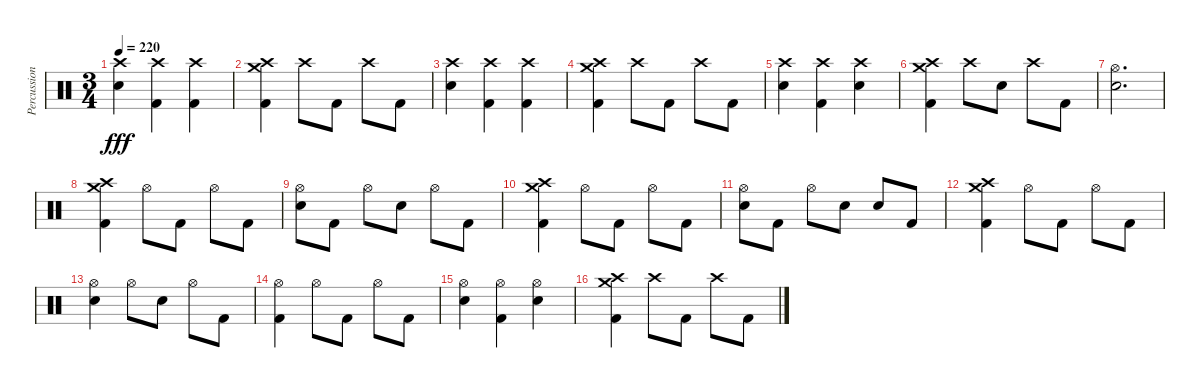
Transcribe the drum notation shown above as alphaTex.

\track ("Percussions" "Percussion") {instrument percussion}
\staff {score}
\articulation defaults
\ts (3 4)
\tempo 220
\clef neutral
\ks c
("Crash high (hit)" "Electric Snare (hit)").4{dy fff} ("Crash high (hit)" "Kick (hit) 2").4 ("Crash high (hit)" "Kick (hit) 2").4 |
("Crash high (hit)" "Crash medium (hit)" "Kick (hit) 2").4 "Crash high (hit)".8 "Kick (hit) 2".8 "Crash high (hit)".8 "Kick (hit) 2".8 |
("Crash high (hit)" "Electric Snare (hit)").4 ("Crash high (hit)" "Kick (hit) 2").4 ("Crash high (hit)" "Kick (hit) 2").4 |
("Crash high (hit)" "Crash medium (hit)" "Kick (hit) 2").4 "Crash high (hit)".8 "Kick (hit) 2".8 "Crash high (hit)".8 "Kick (hit) 2".8 |
("Crash high (hit)" "Electric Snare (hit)").4 ("Crash high (hit)" "Kick (hit) 2").4 ("Crash high (hit)" "Electric Snare (hit)").4 |
("Crash high (hit)" "Crash medium (hit)" "Kick (hit) 2").4 "Crash high (hit)".8 "Electric Snare (hit)".8 "Crash high (hit)".8 "Kick (hit) 2".8 |
("Hi-Hat (open)" "Electric Snare (hit)").2{d} |
("Crash high (hit)" "Crash medium (hit)" "Kick (hit) 2").4{bd 240} "Hi-Hat (open)".8 "Kick (hit) 2".8 "Hi-Hat (open)".8 "Kick (hit) 2".8 |
("Hi-Hat (open)" "Electric Snare (hit)").8 "Kick (hit) 2".8 "Hi-Hat (open)".8 "Electric Snare (hit)".8 "Hi-Hat (open)".8 "Kick (hit) 2".8 |
("Crash high (hit)" "Crash medium (hit)" "Kick (hit) 2").4{bd 240} "Hi-Hat (open)".8 "Kick (hit) 2".8 "Hi-Hat (open)".8 "Kick (hit) 2".8 |
("Hi-Hat (open)" "Electric Snare (hit)").8 "Kick (hit) 2".8 "Hi-Hat (open)".8 "Electric Snare (hit)".8 "Electric Snare (hit)".8 "Kick (hit) 2".8 |
("Crash high (hit)" "Crash medium (hit)" "Kick (hit) 2").4{bd 240} "Hi-Hat (open)".8 "Kick (hit) 2".8 "Hi-Hat (open)".8 "Kick (hit) 2".8 |
("Hi-Hat (open)" "Electric Snare (hit)").4 "Hi-Hat (open)".8 "Electric Snare (hit)".8 "Hi-Hat (open)".8 "Kick (hit) 2".8 |
("Hi-Hat (open)" "Kick (hit) 2").4 "Hi-Hat (open)".8 "Kick (hit) 2".8 "Hi-Hat (open)".8 "Kick (hit) 2".8 |
("Hi-Hat (open)" "Electric Snare (hit)").4 ("Hi-Hat (open)" "Kick (hit) 2").4 ("Hi-Hat (open)" "Electric Snare (hit)").4 |
("Crash high (hit)" "Crash medium (hit)" "Kick (hit) 2").4{bd 240} "Crash high (hit)".8 "Kick (hit) 2".8 "Crash high (hit)".8 "Kick (hit) 2".8
